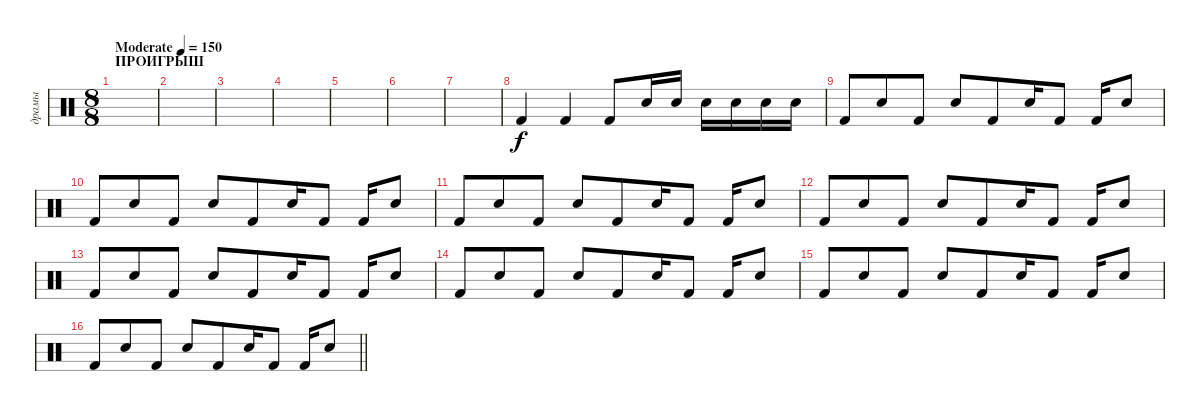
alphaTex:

\track ("драмы" "драмы") {instrument percussion}
\staff {score}
\articulation defaults
\ts (8 8)
\section ("" "ПРОИГРЫШ")
\tempo (150 "Moderate")
\clef neutral
\ks c
|
|
|
|
|
|
|
"Kick (hit) 2".4 "Kick (hit) 2".4 "Kick (hit) 2".8 "Electric Snare (hit)".16 "Electric Snare (hit)".16 "Electric Snare (hit)".16 "Electric Snare (hit)".16 "Electric Snare (hit)".16 "Electric Snare (hit)".16 |
"Kick (hit) 2".8 "Electric Snare (hit)".8 "Kick (hit) 2".8 "Electric Snare (hit)".8 "Kick (hit) 2".8 "Electric Snare (hit)".16 "Kick (hit) 2".8 "Kick (hit) 2".16 "Electric Snare (hit)".8 |
"Kick (hit) 2".8 "Electric Snare (hit)".8 "Kick (hit) 2".8 "Electric Snare (hit)".8 "Kick (hit) 2".8 "Electric Snare (hit)".16 "Kick (hit) 2".8 "Kick (hit) 2".16 "Electric Snare (hit)".8 |
"Kick (hit) 2".8 "Electric Snare (hit)".8 "Kick (hit) 2".8 "Electric Snare (hit)".8 "Kick (hit) 2".8 "Electric Snare (hit)".16 "Kick (hit) 2".8 "Kick (hit) 2".16 "Electric Snare (hit)".8 |
"Kick (hit) 2".8 "Electric Snare (hit)".8 "Kick (hit) 2".8 "Electric Snare (hit)".8 "Kick (hit) 2".8 "Electric Snare (hit)".16 "Kick (hit) 2".8 "Kick (hit) 2".16 "Electric Snare (hit)".8 |
"Kick (hit) 2".8 "Electric Snare (hit)".8 "Kick (hit) 2".8 "Electric Snare (hit)".8 "Kick (hit) 2".8 "Electric Snare (hit)".16 "Kick (hit) 2".8 "Kick (hit) 2".16 "Electric Snare (hit)".8 |
"Kick (hit) 2".8 "Electric Snare (hit)".8 "Kick (hit) 2".8 "Electric Snare (hit)".8 "Kick (hit) 2".8 "Electric Snare (hit)".16 "Kick (hit) 2".8 "Kick (hit) 2".16 "Electric Snare (hit)".8 |
"Kick (hit) 2".8 "Electric Snare (hit)".8 "Kick (hit) 2".8 "Electric Snare (hit)".8 "Kick (hit) 2".8 "Electric Snare (hit)".16 "Kick (hit) 2".8 "Kick (hit) 2".16 "Electric Snare (hit)".8 |
\barLineRight lightlight "Kick (hit) 2".8 "Electric Snare (hit)".8 "Kick (hit) 2".8 "Electric Snare (hit)".8 "Kick (hit) 2".8 "Electric Snare (hit)".16 "Kick (hit) 2".8 "Kick (hit) 2".16 "Electric Snare (hit)".8
